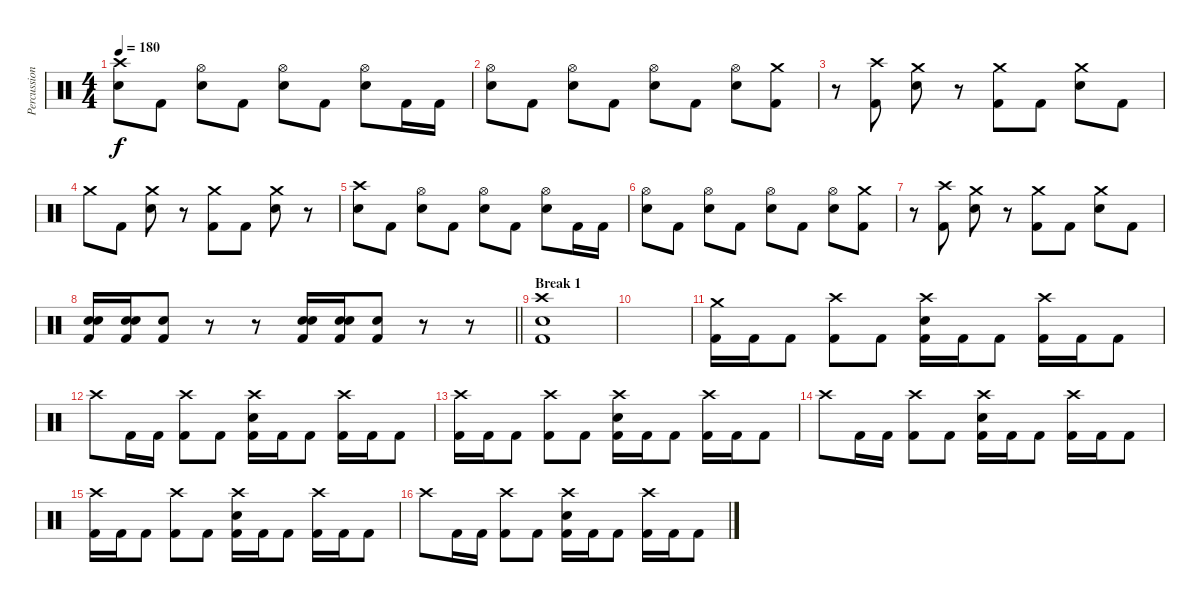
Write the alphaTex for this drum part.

\track ("Percussion" "Percussion") {instrument percussion}
\staff {score}
\articulation defaults
\ts (4 4)
\tempo 180
\clef neutral
\ks c
("Crash high (hit)" "Electric Snare (hit)").8{dy f} "Kick (hit) 2".8 ("Hi-Hat (open)" "Electric Snare (hit)").8 "Kick (hit) 2".8 ("Hi-Hat (open)" "Electric Snare (hit)").8 "Kick (hit) 2".8 ("Hi-Hat (open)" "Electric Snare (hit)").8 "Kick (hit) 2".16 "Kick (hit) 2".16 |
("Hi-Hat (open)" "Electric Snare (hit)").8 "Kick (hit) 2".8 ("Hi-Hat (open)" "Electric Snare (hit)").8 "Kick (hit) 2".8 ("Hi-Hat (open)" "Electric Snare (hit)").8 "Kick (hit) 2".8 ("Hi-Hat (open)" "Electric Snare (hit)").8 ("Crash medium (hit)" "Kick (hit) 2").8 |
r.8 ("Crash high (hit)" "Kick (hit) 2").8 ("Crash medium (hit)" "Electric Snare (hit)").8 r.8 ("Crash medium (hit)" "Kick (hit) 2").8 "Kick (hit) 2".8 ("Crash medium (hit)" "Electric Snare (hit)").8 "Kick (hit) 2".8 |
"Crash medium (hit)".8 "Kick (hit) 2".8 ("Crash medium (hit)" "Electric Snare (hit)").8 r.8 ("Crash medium (hit)" "Kick (hit) 2").8 "Kick (hit) 2".8 ("Crash medium (hit)" "Electric Snare (hit)").8 r.8 |
("Crash high (hit)" "Electric Snare (hit)").8 "Kick (hit) 2".8 ("Hi-Hat (open)" "Electric Snare (hit)").8 "Kick (hit) 2".8 ("Hi-Hat (open)" "Electric Snare (hit)").8 "Kick (hit) 2".8 ("Hi-Hat (open)" "Electric Snare (hit)").8 "Kick (hit) 2".16 "Kick (hit) 2".16 |
("Hi-Hat (open)" "Electric Snare (hit)").8 "Kick (hit) 2".8 ("Hi-Hat (open)" "Electric Snare (hit)").8 "Kick (hit) 2".8 ("Hi-Hat (open)" "Electric Snare (hit)").8 "Kick (hit) 2".8 ("Hi-Hat (open)" "Electric Snare (hit)").8 ("Crash medium (hit)" "Kick (hit) 2").8 |
r.8 ("Crash high (hit)" "Kick (hit) 2").8 ("Crash medium (hit)" "Electric Snare (hit)").8 r.8 ("Crash medium (hit)" "Kick (hit) 2").8 "Kick (hit) 2".8 ("Crash medium (hit)" "Electric Snare (hit)").8 "Kick (hit) 2".8 |
\barLineRight lightlight
("Electric Snare (hit)" "Electric Snare (hit)" "Kick (hit) 2").16 ("Electric Snare (hit)" "Electric Snare (hit)" "Kick (hit) 2").16 ("Electric Snare (hit)" "Kick (hit) 2").8 r.8 r.8 ("Electric Snare (hit)" "Electric Snare (hit)" "Kick (hit) 2").16 ("Electric Snare (hit)" "Electric Snare (hit)" "Kick (hit) 2").16 ("Electric Snare (hit)" "Kick (hit) 2").8 r.8 r.8 |
\section ("" "Break 1")
("Crash high (hit)" "Electric Snare (hit)" "Kick (hit) 2").1 |
|
("Crash medium (hit)" "Kick (hit) 2").16 "Kick (hit) 2".16 "Kick (hit) 2".8 ("Crash high (hit)" "Kick (hit) 2").8 "Kick (hit) 2".8 ("Crash high (hit)" "Electric Snare (hit)" "Kick (hit) 2").16 "Kick (hit) 2".16 "Kick (hit) 2".8 ("Crash high (hit)" "Kick (hit) 2").16 "Kick (hit) 2".16 "Kick (hit) 2".8 |
"Crash high (hit)".8 "Kick (hit) 2".16 "Kick (hit) 2".16 ("Crash high (hit)" "Kick (hit) 2").8 "Kick (hit) 2".8 ("Crash high (hit)" "Electric Snare (hit)" "Kick (hit) 2").16 "Kick (hit) 2".16 "Kick (hit) 2".8 ("Crash high (hit)" "Kick (hit) 2").16 "Kick (hit) 2".16 "Kick (hit) 2".8 |
("Crash high (hit)" "Kick (hit) 2").16 "Kick (hit) 2".16 "Kick (hit) 2".8 ("Crash high (hit)" "Kick (hit) 2").8 "Kick (hit) 2".8 ("Crash high (hit)" "Electric Snare (hit)" "Kick (hit) 2").16 "Kick (hit) 2".16 "Kick (hit) 2".8 ("Crash high (hit)" "Kick (hit) 2").16 "Kick (hit) 2".16 "Kick (hit) 2".8 |
"Crash high (hit)".8 "Kick (hit) 2".16 "Kick (hit) 2".16 ("Crash high (hit)" "Kick (hit) 2").8 "Kick (hit) 2".8 ("Crash high (hit)" "Electric Snare (hit)" "Kick (hit) 2").16 "Kick (hit) 2".16 "Kick (hit) 2".8 ("Crash high (hit)" "Kick (hit) 2").16 "Kick (hit) 2".16 "Kick (hit) 2".8 |
("Crash high (hit)" "Kick (hit) 2").16 "Kick (hit) 2".16 "Kick (hit) 2".8 ("Crash high (hit)" "Kick (hit) 2").8 "Kick (hit) 2".8 ("Crash high (hit)" "Electric Snare (hit)" "Kick (hit) 2").16 "Kick (hit) 2".16 "Kick (hit) 2".8 ("Crash high (hit)" "Kick (hit) 2").16 "Kick (hit) 2".16 "Kick (hit) 2".8 |
"Crash high (hit)".8 "Kick (hit) 2".16 "Kick (hit) 2".16 ("Crash high (hit)" "Kick (hit) 2").8 "Kick (hit) 2".8 ("Crash high (hit)" "Electric Snare (hit)" "Kick (hit) 2").16 "Kick (hit) 2".16 "Kick (hit) 2".8 ("Crash high (hit)" "Kick (hit) 2").16 "Kick (hit) 2".16 "Kick (hit) 2".8
